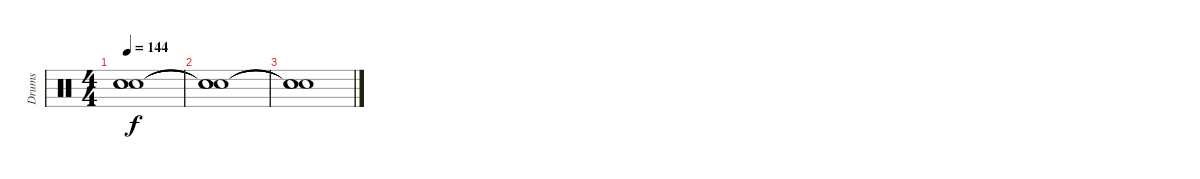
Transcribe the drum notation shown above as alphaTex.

\track ("Drums" "Drums") {instrument percussion}
\staff {score}
\articulation defaults
\ts (4 4)
\tempo 144
\clef neutral
\ks c
("Snare (hit)"{t} "Snare (hit)"{t} "Snare (hit)"{t}).1{dy f} |
("Snare (hit)"{t} "Snare (hit)"{t} "Snare (hit)"{t}).1 |
("Snare (hit)"{t} "Snare (hit)"{t} "Snare (hit)"{t}).1
